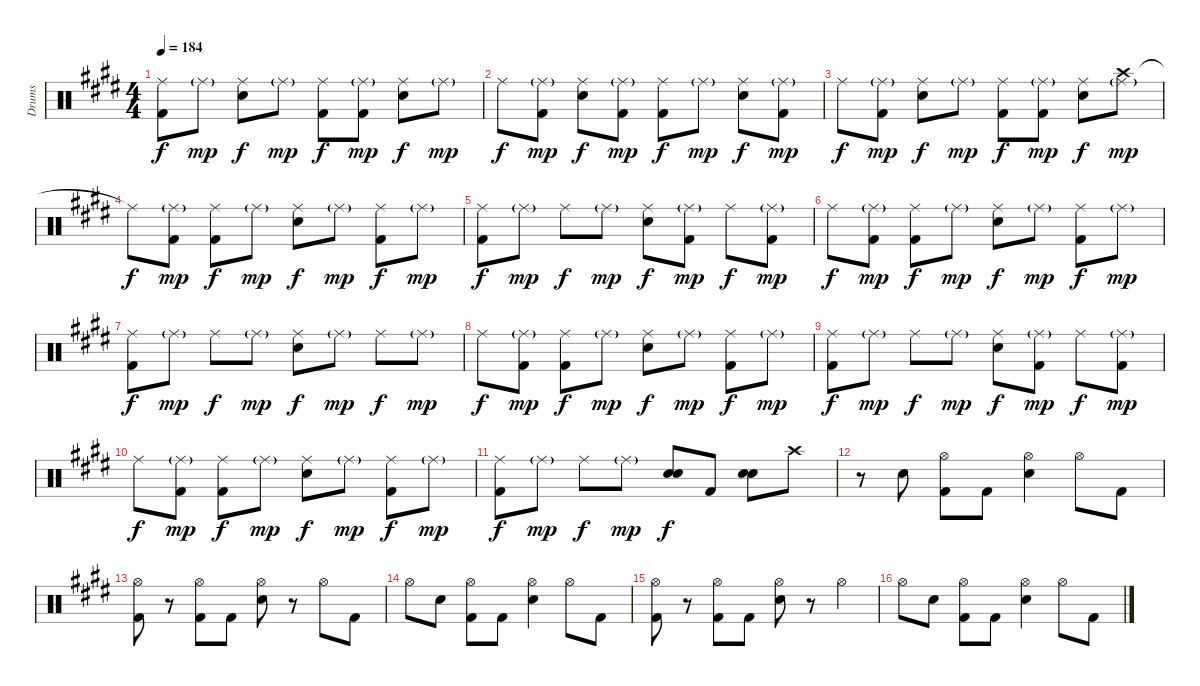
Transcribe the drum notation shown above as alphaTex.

\track ("Drums" "Drums") {instrument percussion}
\staff {score}
\articulation defaults
\ts (4 4)
\tempo 184
\clef neutral
\ks c#minor
("Ride (middle)" "Kick (hit) 2").8{dy f} "Ride (middle)"{g}.8{dy mp} ("Ride (middle)" "Snare (hit) 2").8{dy f} "Ride (middle)"{g}.8{dy mp} ("Ride (middle)" "Kick (hit) 2").8{dy f} ("Ride (middle)"{g} "Kick (hit) 2").8{dy mp} ("Ride (middle)" "Snare (hit) 2").8{dy f} "Ride (middle)"{g}.8{dy mp} |
"Ride (middle)".8{dy f} ("Ride (middle)"{g} "Kick (hit) 2").8{dy mp} ("Ride (middle)" "Snare (hit) 2").8{dy f} ("Ride (middle)"{g} "Kick (hit) 2").8{dy mp} ("Ride (middle)" "Kick (hit) 2").8{dy f} "Ride (middle)"{g}.8{dy mp} ("Ride (middle)" "Snare (hit) 2").8{dy f} ("Ride (middle)"{g} "Kick (hit) 2").8{dy mp} |
"Ride (middle)".8{dy f} ("Ride (middle)"{g} "Kick (hit) 2").8{dy mp} ("Ride (middle)" "Snare (hit) 2").8{dy f} "Ride (middle)"{g}.8{dy mp} ("Ride (middle)" "Kick (hit) 2").8{dy f} ("Ride (middle)"{g} "Kick (hit) 2").8{dy mp} ("Ride (middle)" "Snare (hit) 2").8{dy f} ("Crash high (hit)" "Ride (middle)"{g}).8{dy mp} |
"Ride (middle)"{t}.8{dy f} ("Ride (middle)"{g} "Kick (hit) 2").8{dy mp} ("Ride (middle)" "Kick (hit) 2").8{dy f} "Ride (middle)"{g}.8{dy mp} ("Ride (middle)" "Snare (hit) 2").8{dy f} "Ride (middle)"{g}.8{dy mp} ("Ride (middle)" "Kick (hit) 2").8{dy f} "Ride (middle)"{g}.8{dy mp} |
("Ride (middle)" "Kick (hit) 2").8{dy f} "Ride (middle)"{g}.8{dy mp} "Ride (middle)".8{dy f} "Ride (middle)"{g}.8{dy mp} ("Ride (middle)" "Snare (hit) 2").8{dy f} ("Ride (middle)"{g} "Kick (hit) 2").8{dy mp} "Ride (middle)".8{dy f} ("Ride (middle)"{g} "Kick (hit) 2").8{dy mp} |
"Ride (middle)".8{dy f} ("Ride (middle)"{g} "Kick (hit) 2").8{dy mp} ("Ride (middle)" "Kick (hit) 2").8{dy f} "Ride (middle)"{g}.8{dy mp} ("Ride (middle)" "Snare (hit) 2").8{dy f} "Ride (middle)"{g}.8{dy mp} ("Ride (middle)" "Kick (hit) 2").8{dy f} "Ride (middle)"{g}.8{dy mp} |
("Ride (middle)" "Kick (hit) 2").8{dy f} "Ride (middle)"{g}.8{dy mp} "Ride (middle)".8{dy f} "Ride (middle)"{g}.8{dy mp} ("Ride (middle)" "Snare (hit) 2").8{dy f} "Ride (middle)"{g}.8{dy mp} "Ride (middle)".8{dy f} "Ride (middle)"{g}.8{dy mp} |
"Ride (middle)".8{dy f} ("Ride (middle)"{g} "Kick (hit) 2").8{dy mp} ("Ride (middle)" "Kick (hit) 2").8{dy f} "Ride (middle)"{g}.8{dy mp} ("Ride (middle)" "Snare (hit) 2").8{dy f} "Ride (middle)"{g}.8{dy mp} ("Ride (middle)" "Kick (hit) 2").8{dy f} "Ride (middle)"{g}.8{dy mp} |
("Ride (middle)" "Kick (hit) 2").8{dy f} "Ride (middle)"{g}.8{dy mp} "Ride (middle)".8{dy f} "Ride (middle)"{g}.8{dy mp} ("Ride (middle)" "Snare (hit) 2").8{dy f} ("Ride (middle)"{g} "Kick (hit) 2").8{dy mp} "Ride (middle)".8{dy f} ("Ride (middle)"{g} "Kick (hit) 2").8{dy mp} |
"Ride (middle)".8{dy f} ("Ride (middle)"{g} "Kick (hit) 2").8{dy mp} ("Ride (middle)" "Kick (hit) 2").8{dy f} "Ride (middle)"{g}.8{dy mp} ("Ride (middle)" "Snare (hit) 2").8{dy f} "Ride (middle)"{g}.8{dy mp} ("Ride (middle)" "Kick (hit) 2").8{dy f} "Ride (middle)"{g}.8{dy mp} |
("Ride (middle)" "Kick (hit) 2").8{dy f} "Ride (middle)"{g}.8{dy mp} "Ride (middle)".8{dy f} "Ride (middle)"{g}.8{dy mp} ("Snare (hit) 2" "Electric Snare (hit)").8{dy f} "Kick (hit) 2".8 ("Snare (hit) 2" "Electric Snare (hit)").8 "Crash high (hit)".8 |
r.8 "Snare (hit) 2".8 ("Hi-Hat (open)" "Kick (hit) 2").8 "Kick (hit) 2".8 ("Hi-Hat (open)" "Snare (hit) 2").4 "Hi-Hat (open)".8 "Kick (hit) 2".8 |
("Hi-Hat (open)" "Kick (hit) 2").8 r.8 ("Hi-Hat (open)" "Kick (hit) 2").8 "Kick (hit) 2".8 ("Hi-Hat (open)" "Snare (hit) 2").8 r.8 "Hi-Hat (open)".8 "Kick (hit) 2".8 |
"Hi-Hat (open)".8 "Snare (hit) 2".8 ("Hi-Hat (open)" "Kick (hit) 2").8 "Kick (hit) 2".8 ("Hi-Hat (open)" "Snare (hit) 2").4 "Hi-Hat (open)".8 "Kick (hit) 2".8 |
("Hi-Hat (open)" "Kick (hit) 2").8 r.8 ("Hi-Hat (open)" "Kick (hit) 2").8 "Kick (hit) 2".8 ("Hi-Hat (open)" "Snare (hit) 2").8 r.8 "Hi-Hat (open)".4 |
"Hi-Hat (open)".8 "Snare (hit) 2".8 ("Hi-Hat (open)" "Kick (hit) 2").8 "Kick (hit) 2".8 ("Hi-Hat (open)" "Snare (hit) 2").4 "Hi-Hat (open)".8 "Kick (hit) 2".8
